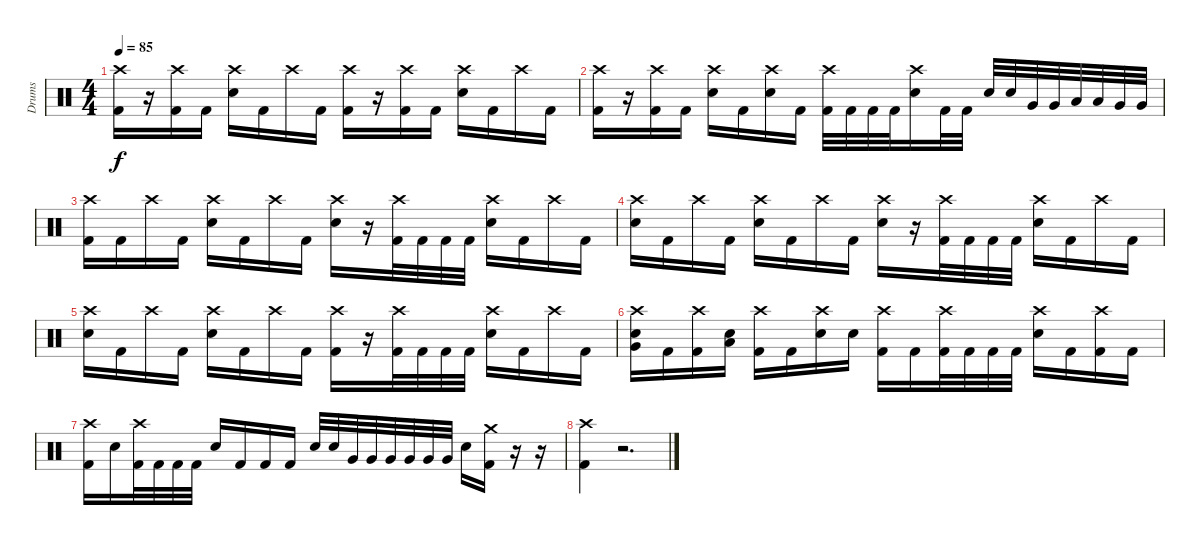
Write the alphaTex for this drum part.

\track ("Drums" "Drums") {instrument percussion}
\staff {score}
\articulation defaults
\ts (4 4)
\tempo 85
\clef neutral
\ks c
("Crash high (hit)" "Kick (hit) 2").16{dy f} r.16 ("Crash high (hit)" "Kick (hit) 2").16 "Kick (hit) 2".16 ("Crash high (hit)" "Snare (hit) 2").16 "Kick (hit) 2".16 "Crash high (hit)".16 "Kick (hit) 2".16 ("Crash high (hit)" "Kick (hit) 2").16 r.16 ("Crash high (hit)" "Kick (hit) 2").16 "Kick (hit) 2".16 ("Crash high (hit)" "Snare (hit) 2").16 "Kick (hit) 2".16 "Crash high (hit)".16 "Kick (hit) 2".16 |
("Crash high (hit)" "Kick (hit) 2").16 r.16 ("Crash high (hit)" "Kick (hit) 2").16 "Kick (hit) 2".16 ("Crash high (hit)" "Snare (hit) 2").16 "Kick (hit) 2".16 ("Crash high (hit)" "Snare (hit) 2").16 "Kick (hit) 2".16 ("Crash high (hit)" "Kick (hit) 2").32 "Kick (hit) 2".32 "Kick (hit) 2".32 "Kick (hit) 2".32 ("Crash high (hit)" "Snare (hit) 2").16 "Kick (hit) 2".32 "Kick (hit) 2".32 "Snare (hit) 2".32 "Snare (hit) 2".32 "Very Low Tom (hit)".32 "Very Low Tom (hit)".32 "Low Tom (hit)".32 "Low Tom (hit)".32 "Very Low Tom (hit)".32 "Very Low Tom (hit)".32 |
("Crash high (hit)" "Kick (hit) 2").16 "Kick (hit) 2".16 "Crash high (hit)".16 "Kick (hit) 2".16 ("Crash high (hit)" "Snare (hit) 2").16 "Kick (hit) 2".16 "Crash high (hit)".16 "Kick (hit) 2".16 ("Crash high (hit)" "Snare (hit) 2").16 r.16 ("Crash high (hit)" "Kick (hit) 2").32 "Kick (hit) 2".32 "Kick (hit) 2".32 "Kick (hit) 2".32 ("Crash high (hit)" "Snare (hit) 2").16 "Kick (hit) 2".16 "Crash high (hit)".16 "Kick (hit) 2".16 |
("Crash high (hit)" "Snare (hit) 2").16 "Kick (hit) 2".16 "Crash high (hit)".16 "Kick (hit) 2".16 ("Crash high (hit)" "Snare (hit) 2").16 "Kick (hit) 2".16 "Crash high (hit)".16 "Kick (hit) 2".16 ("Crash high (hit)" "Snare (hit) 2").16 r.16 ("Crash high (hit)" "Kick (hit) 2").32 "Kick (hit) 2".32 "Kick (hit) 2".32 "Kick (hit) 2".32 ("Crash high (hit)" "Snare (hit) 2").16 "Kick (hit) 2".16 "Crash high (hit)".16 "Kick (hit) 2".16 |
("Crash high (hit)" "Snare (hit) 2").16 "Kick (hit) 2".16 "Crash high (hit)".16 "Kick (hit) 2".16 ("Crash high (hit)" "Snare (hit) 2").16 "Kick (hit) 2".16 "Crash high (hit)".16 "Kick (hit) 2".16 ("Crash high (hit)" "Kick (hit) 2").16 r.16 ("Crash high (hit)" "Kick (hit) 2").32 "Kick (hit) 2".32 "Kick (hit) 2".32 "Kick (hit) 2".32 ("Crash high (hit)" "Snare (hit) 2").16 "Kick (hit) 2".16 "Crash high (hit)".16 "Kick (hit) 2".16 |
("Crash high (hit)" "Snare (hit) 2" "Very Low Tom (hit)").16 "Kick (hit) 2".16 ("Crash high (hit)" "Kick (hit) 2").16 ("Snare (hit) 2" "Low Tom (hit)").16 ("Crash high (hit)" "Kick (hit) 2").16 "Kick (hit) 2".16 ("Crash high (hit)" "Snare (hit) 2").16 "Snare (hit) 2".16 ("Crash high (hit)" "Kick (hit) 2").16 "Kick (hit) 2".16 ("Crash high (hit)" "Kick (hit) 2").32 "Kick (hit) 2".32 "Kick (hit) 2".32 "Kick (hit) 2".32 ("Crash high (hit)" "Snare (hit) 2").16 "Kick (hit) 2".16 ("Crash high (hit)" "Kick (hit) 2").16 "Kick (hit) 2".16 |
("Crash high (hit)" "Kick (hit) 2").16 "Snare (hit) 2".16 ("Crash high (hit)" "Kick (hit) 2").32 "Kick (hit) 2".32 "Kick (hit) 2".32 "Kick (hit) 2".32 "Snare (hit) 2".16 "Kick (hit) 2".16 "Kick (hit) 2".16 "Kick (hit) 2".16 "Snare (hit) 2".32 "Snare (hit) 2".32 "Very Low Tom (hit)".32 "Very Low Tom (hit)".32 "Very Low Tom (hit)".32 "Very Low Tom (hit)".32 "Very Low Tom (hit)".32 "Very Low Tom (hit)".32 "Snare (hit) 2".16 ("Crash medium (hit)" "Kick (hit) 2").16 r.16 r.16 |
("Crash high (hit)" "Kick (hit) 2").4 r.2{d}
